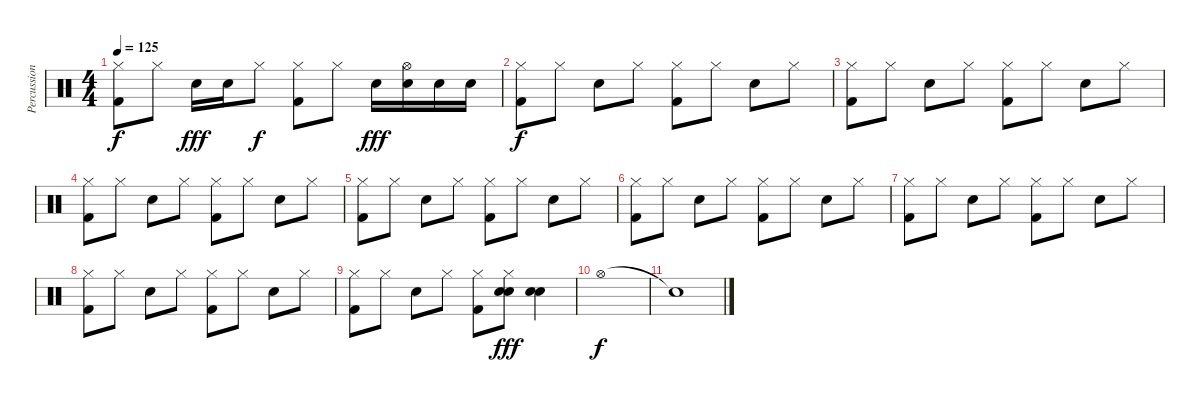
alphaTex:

\track ("Percussion" "Percussion") {instrument percussion}
\staff {score}
\articulation defaults
\ts (4 4)
\tempo 125
\clef neutral
\ks c
("Hi-Hat (closed)" "Kick (hit) 2").8{dy f} "Hi-Hat (closed)".8 "Electric Snare (hit)".16{dy fff} "Electric Snare (hit)".16 "Hi-Hat (closed)".8{dy f} ("Hi-Hat (closed)" "Kick (hit) 2").8 "Hi-Hat (closed)".8 "Electric Snare (hit)".16{dy fff} ("Electric Snare (hit)" "Hi-Hat (open)").16 "Electric Snare (hit)".16 "Electric Snare (hit)".16 |
("Hi-Hat (closed)" "Kick (hit) 2").8{dy f} "Hi-Hat (closed)".8 "Electric Snare (hit)".8 "Hi-Hat (closed)".8 ("Hi-Hat (closed)" "Kick (hit) 2").8 "Hi-Hat (closed)".8 "Electric Snare (hit)".8 "Hi-Hat (closed)".8 |
("Hi-Hat (closed)" "Kick (hit) 2").8 "Hi-Hat (closed)".8 "Electric Snare (hit)".8 "Hi-Hat (closed)".8 ("Hi-Hat (closed)" "Kick (hit) 2").8 "Hi-Hat (closed)".8 "Electric Snare (hit)".8 "Hi-Hat (closed)".8 |
("Hi-Hat (closed)" "Kick (hit) 2").8 "Hi-Hat (closed)".8 "Electric Snare (hit)".8 "Hi-Hat (closed)".8 ("Hi-Hat (closed)" "Kick (hit) 2").8 "Hi-Hat (closed)".8 "Electric Snare (hit)".8 "Hi-Hat (closed)".8 |
("Hi-Hat (closed)" "Kick (hit) 2").8 "Hi-Hat (closed)".8 "Electric Snare (hit)".8 "Hi-Hat (closed)".8 ("Hi-Hat (closed)" "Kick (hit) 2").8 "Hi-Hat (closed)".8 "Electric Snare (hit)".8 "Hi-Hat (closed)".8 |
("Hi-Hat (closed)" "Kick (hit) 2").8 "Hi-Hat (closed)".8 "Electric Snare (hit)".8 "Hi-Hat (closed)".8 ("Hi-Hat (closed)" "Kick (hit) 2").8 "Hi-Hat (closed)".8 "Electric Snare (hit)".8 "Hi-Hat (closed)".8 |
("Hi-Hat (closed)" "Kick (hit) 2").8 "Hi-Hat (closed)".8 "Electric Snare (hit)".8 "Hi-Hat (closed)".8 ("Hi-Hat (closed)" "Kick (hit) 2").8 "Hi-Hat (closed)".8 "Electric Snare (hit)".8 "Hi-Hat (closed)".8 |
("Hi-Hat (closed)" "Kick (hit) 2").8 "Hi-Hat (closed)".8 "Electric Snare (hit)".8 "Hi-Hat (closed)".8 ("Hi-Hat (closed)" "Kick (hit) 2").8 "Hi-Hat (closed)".8 "Electric Snare (hit)".8 "Hi-Hat (closed)".8 |
("Hi-Hat (closed)" "Kick (hit) 2").8 "Hi-Hat (closed)".8 "Electric Snare (hit)".8 "Hi-Hat (closed)".8 ("Hi-Hat (closed)" "Kick (hit) 2").8 ("Electric Snare (hit)" "Electric Snare (hit)" "Hi-Hat (closed)").8{dy fff} ("Electric Snare (hit)" "Electric Snare (hit)").4 |
"Hi-Hat (open)".1{dy f} |
"Snare (hit)"{t}.1
